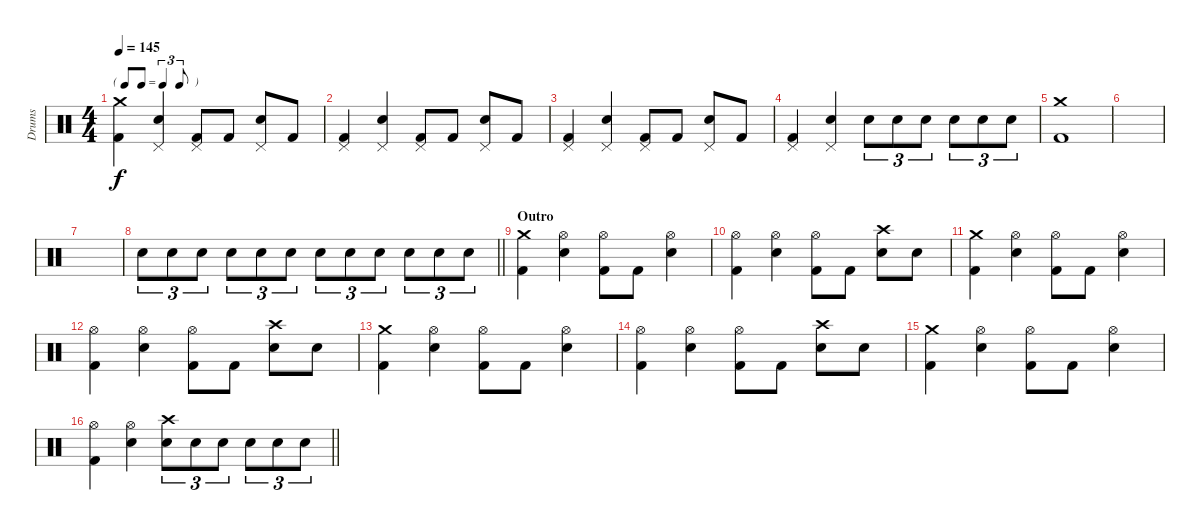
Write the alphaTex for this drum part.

\track ("Drums" "Drums") {instrument percussion}
\staff {score}
\articulation defaults
\ts (4 4)
\tf triplet8th
\tempo 145
\clef neutral
\ks c
("Crash medium (hit)" "Kick (hit) 2").4{dy f} ("Pedal Hi-Hat (hit)" "Electric Snare (hit)").4 ("Pedal Hi-Hat (hit)" "Kick (hit) 2").8 "Kick (hit) 2".8 ("Pedal Hi-Hat (hit)" "Electric Snare (hit)").8 "Kick (hit) 2".8 |
("Pedal Hi-Hat (hit)" "Kick (hit) 2").4 ("Pedal Hi-Hat (hit)" "Electric Snare (hit)").4 ("Pedal Hi-Hat (hit)" "Kick (hit) 2").8 "Kick (hit) 2".8 ("Pedal Hi-Hat (hit)" "Electric Snare (hit)").8 "Kick (hit) 2".8 |
("Pedal Hi-Hat (hit)" "Kick (hit) 2").4 ("Pedal Hi-Hat (hit)" "Electric Snare (hit)").4 ("Pedal Hi-Hat (hit)" "Kick (hit) 2").8 "Kick (hit) 2".8 ("Pedal Hi-Hat (hit)" "Electric Snare (hit)").8 "Kick (hit) 2".8 |
("Pedal Hi-Hat (hit)" "Kick (hit) 2").4 ("Pedal Hi-Hat (hit)" "Electric Snare (hit)").4 "Electric Snare (hit)".8{tu (3 2)} "Electric Snare (hit)".8{tu (3 2)} "Electric Snare (hit)".8{tu (3 2)} "Electric Snare (hit)".8{tu (3 2)} "Electric Snare (hit)".8{tu (3 2)} "Electric Snare (hit)".8{tu (3 2)} |
("Crash medium (hit)" "Kick (hit) 2").1 |
|
|
\barLineRight lightlight "Electric Snare (hit)".8{tu (3 2)} "Electric Snare (hit)".8{tu (3 2)} "Electric Snare (hit)".8{tu (3 2)} "Electric Snare (hit)".8{tu (3 2)} "Electric Snare (hit)".8{tu (3 2)} "Electric Snare (hit)".8{tu (3 2)} "Electric Snare (hit)".8{tu (3 2)} "Electric Snare (hit)".8{tu (3 2)} "Electric Snare (hit)".8{tu (3 2)} "Electric Snare (hit)".8{tu (3 2)} "Electric Snare (hit)".8{tu (3 2)} "Electric Snare (hit)".8{tu (3 2)}
|
\section ("" "Outro")
("Crash medium (hit)" "Kick (hit) 2").4 ("Hi-Hat (open)" "Electric Snare (hit)").4 ("Hi-Hat (open)" "Kick (hit) 2").8 "Kick (hit) 2".8 ("Hi-Hat (open)" "Electric Snare (hit)").4 |
("Hi-Hat (open)" "Kick (hit) 2").4 ("Hi-Hat (open)" "Electric Snare (hit)").4 ("Hi-Hat (open)" "Kick (hit) 2").8 "Kick (hit) 2".8 ("Crash high (hit)" "Electric Snare (hit)").8 "Electric Snare (hit)".8 |
("Crash medium (hit)" "Kick (hit) 2").4 ("Hi-Hat (open)" "Electric Snare (hit)").4 ("Hi-Hat (open)" "Kick (hit) 2").8 "Kick (hit) 2".8 ("Hi-Hat (open)" "Electric Snare (hit)").4 |
("Hi-Hat (open)" "Kick (hit) 2").4 ("Hi-Hat (open)" "Electric Snare (hit)").4 ("Hi-Hat (open)" "Kick (hit) 2").8 "Kick (hit) 2".8 ("Crash high (hit)" "Electric Snare (hit)").8 "Electric Snare (hit)".8 |
("Crash medium (hit)" "Kick (hit) 2").4 ("Hi-Hat (open)" "Electric Snare (hit)").4 ("Hi-Hat (open)" "Kick (hit) 2").8 "Kick (hit) 2".8 ("Hi-Hat (open)" "Electric Snare (hit)").4 |
("Hi-Hat (open)" "Kick (hit) 2").4 ("Hi-Hat (open)" "Electric Snare (hit)").4 ("Hi-Hat (open)" "Kick (hit) 2").8 "Kick (hit) 2".8 ("Crash high (hit)" "Electric Snare (hit)").8 "Electric Snare (hit)".8 |
("Crash medium (hit)" "Kick (hit) 2").4 ("Hi-Hat (open)" "Electric Snare (hit)").4 ("Hi-Hat (open)" "Kick (hit) 2").8 "Kick (hit) 2".8 ("Hi-Hat (open)" "Electric Snare (hit)").4 |
\barLineRight lightlight
("Hi-Hat (open)" "Kick (hit) 2").4 ("Hi-Hat (open)" "Electric Snare (hit)").4 ("Crash high (hit)" "Electric Snare (hit)").8{tu (3 2)} "Electric Snare (hit)".8{tu (3 2)} "Electric Snare (hit)".8{tu (3 2)} "Electric Snare (hit)".8{tu (3 2)} "Electric Snare (hit)".8{tu (3 2)} "Electric Snare (hit)".8{tu (3 2)}
